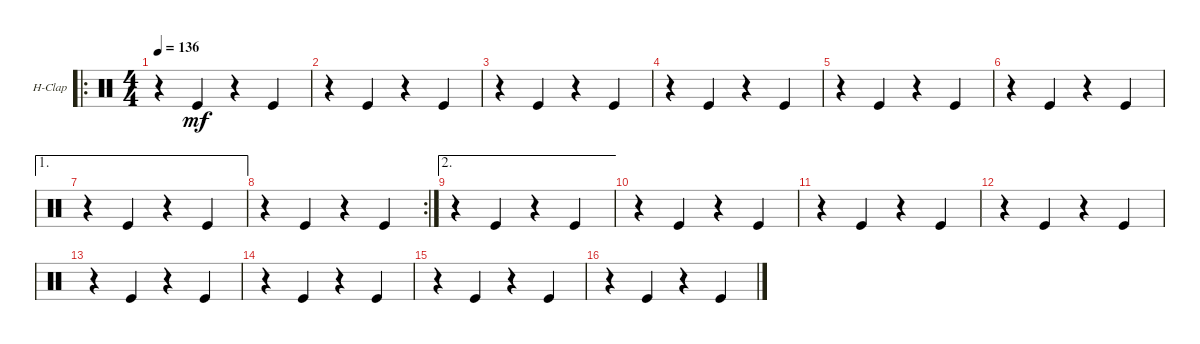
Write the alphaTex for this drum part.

\defaultSystemsLayout 4
\bracketExtendMode groupsimilarinstruments
\firstSystemTrackNameOrientation horizontal
\otherSystemsTrackNameOrientation horizontal
\track ("Hand Clap" "H-Clap") {instrument percussion}
\staff {score}
\articulation defaults
\ro
\ts (4 4)
\tempo 136
\clef neutral
\scale
0.377778
\ks c
r.4{dy mf} "Kick (hit)".4 r.4 "Kick (hit)".4 |
\scale
0.311111 r.4 "Kick (hit)".4 r.4 "Kick (hit)".4 |
\scale
0.333333 r.4 "Kick (hit)".4 r.4 "Kick (hit)".4 |
\scale
0.333333 r.4 "Kick (hit)".4 r.4 "Kick (hit)".4 |
\scale
0.333333 r.4 "Kick (hit)".4 r.4 "Kick (hit)".4 |
\scale
0.321839 r.4 "Kick (hit)".4 r.4 "Kick (hit)".4 |
\ae 1
\scale
0.321839 r.4 "Kick (hit)".4 r.4 "Kick (hit)".4 |
\rc 2
\scale
0.356322 r.4 "Kick (hit)".4 r.4 "Kick (hit)".4 |
\ae 2
\scale
0.333333 r.4 "Kick (hit)".4 r.4 "Kick (hit)".4 |
\scale
0.333333 r.4 "Kick (hit)".4 r.4 "Kick (hit)".4 |
\scale
0.333333 r.4 "Kick (hit)".4 r.4 "Kick (hit)".4 |
\scale
0.333333 r.4 "Kick (hit)".4 r.4 "Kick (hit)".4 |
\scale
0.333333 r.4 "Kick (hit)".4 r.4 "Kick (hit)".4 |
\scale
0.333333 r.4 "Kick (hit)".4 r.4 "Kick (hit)".4 |
\scale
0.333333 r.4 "Kick (hit)".4 r.4 "Kick (hit)".4 |
\scale
0.333333 r.4 "Kick (hit)".4 r.4 "Kick (hit)".4
